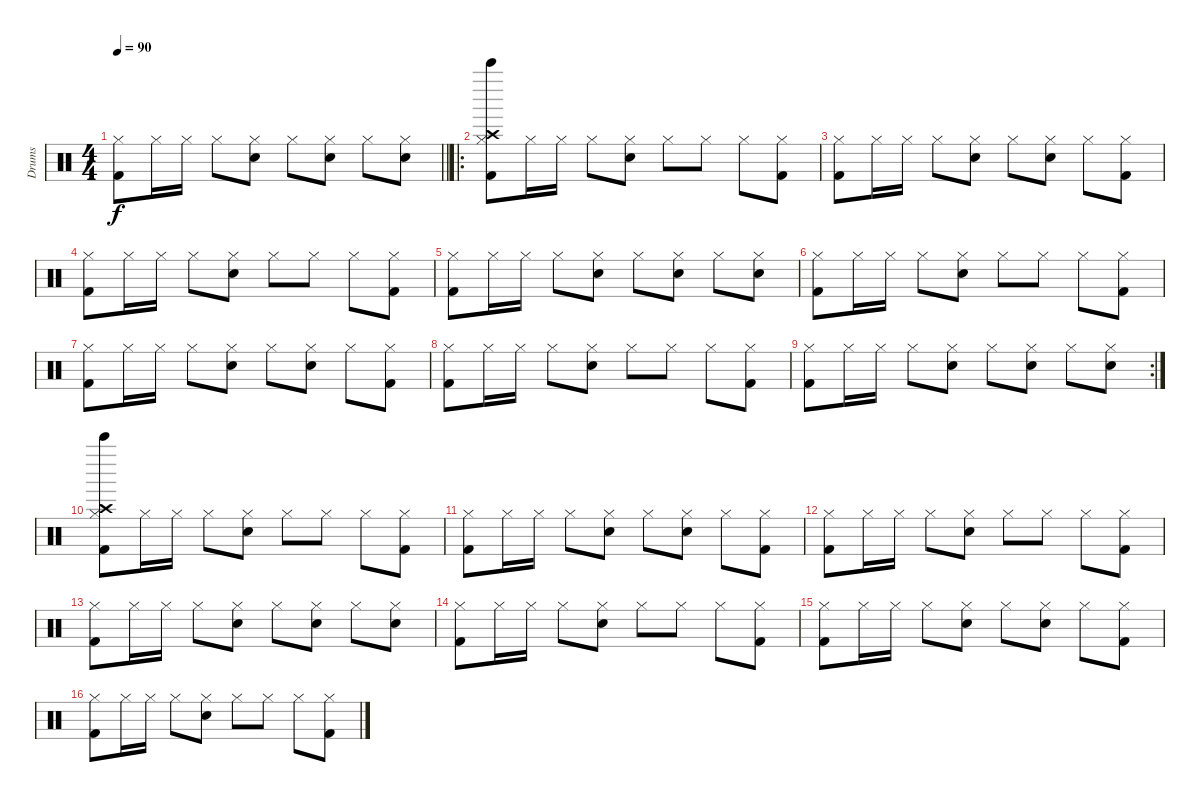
\track ("Drums" "Drums") {instrument percussion}
\staff {score}
\articulation defaults
\ts (4 4)
\tempo 90
\clef neutral
\barLineRight lightlight
\ks c
("Hi-Hat (closed)" "Kick (hit) 2").8{dy f} "Hi-Hat (closed)".16 "Hi-Hat (closed)".16 "Hi-Hat (closed)".8 ("Hi-Hat (closed)" "Snare (hit) 2").8 "Hi-Hat (closed)".8 ("Hi-Hat (closed)" "Snare (hit) 2").8 "Hi-Hat (closed)".8 ("Hi-Hat (closed)" "Snare (hit) 2").8 |
\ro
("Hi-Hat (closed)" "Kick (hit) 2" "Crash high (hit)" "Bell Tree (hit)").8 "Hi-Hat (closed)".16 "Hi-Hat (closed)".16 "Hi-Hat (closed)".8 ("Hi-Hat (closed)" "Snare (hit) 2").8 "Hi-Hat (closed)".8 "Hi-Hat (closed)".8 "Hi-Hat (closed)".8 ("Hi-Hat (closed)" "Kick (hit) 2").8 |
("Hi-Hat (closed)" "Kick (hit) 2").8 "Hi-Hat (closed)".16 "Hi-Hat (closed)".16 "Hi-Hat (closed)".8 ("Hi-Hat (closed)" "Snare (hit) 2").8 "Hi-Hat (closed)".8 ("Hi-Hat (closed)" "Snare (hit) 2").8 "Hi-Hat (closed)".8 ("Hi-Hat (closed)" "Kick (hit) 2").8 |
("Hi-Hat (closed)" "Kick (hit) 2").8 "Hi-Hat (closed)".16 "Hi-Hat (closed)".16 "Hi-Hat (closed)".8 ("Hi-Hat (closed)" "Snare (hit) 2").8 "Hi-Hat (closed)".8 "Hi-Hat (closed)".8 "Hi-Hat (closed)".8 ("Hi-Hat (closed)" "Kick (hit) 2").8 |
("Hi-Hat (closed)" "Kick (hit) 2").8 "Hi-Hat (closed)".16 "Hi-Hat (closed)".16 "Hi-Hat (closed)".8 ("Hi-Hat (closed)" "Snare (hit) 2").8 "Hi-Hat (closed)".8 ("Hi-Hat (closed)" "Snare (hit) 2").8 "Hi-Hat (closed)".8 ("Hi-Hat (closed)" "Snare (hit) 2").8 |
("Hi-Hat (closed)" "Kick (hit) 2").8 "Hi-Hat (closed)".16 "Hi-Hat (closed)".16 "Hi-Hat (closed)".8 ("Hi-Hat (closed)" "Snare (hit) 2").8 "Hi-Hat (closed)".8 "Hi-Hat (closed)".8 "Hi-Hat (closed)".8 ("Hi-Hat (closed)" "Kick (hit) 2").8 |
("Hi-Hat (closed)" "Kick (hit) 2").8 "Hi-Hat (closed)".16 "Hi-Hat (closed)".16 "Hi-Hat (closed)".8 ("Hi-Hat (closed)" "Snare (hit) 2").8 "Hi-Hat (closed)".8 ("Hi-Hat (closed)" "Snare (hit) 2").8 "Hi-Hat (closed)".8 ("Hi-Hat (closed)" "Kick (hit) 2").8 |
("Hi-Hat (closed)" "Kick (hit) 2").8 "Hi-Hat (closed)".16 "Hi-Hat (closed)".16 "Hi-Hat (closed)".8 ("Hi-Hat (closed)" "Snare (hit) 2").8 "Hi-Hat (closed)".8 "Hi-Hat (closed)".8 "Hi-Hat (closed)".8 ("Hi-Hat (closed)" "Kick (hit) 2").8 |
\rc 2
("Hi-Hat (closed)" "Kick (hit) 2").8 "Hi-Hat (closed)".16 "Hi-Hat (closed)".16 "Hi-Hat (closed)".8 ("Hi-Hat (closed)" "Snare (hit) 2").8 "Hi-Hat (closed)".8 ("Hi-Hat (closed)" "Snare (hit) 2").8 "Hi-Hat (closed)".8 ("Hi-Hat (closed)" "Snare (hit) 2").8 |
("Hi-Hat (closed)" "Crash high (hit)" "Kick (hit) 2" "Bell Tree (hit)").8 "Hi-Hat (closed)".16 "Hi-Hat (closed)".16 "Hi-Hat (closed)".8 ("Hi-Hat (closed)" "Snare (hit) 2").8 "Hi-Hat (closed)".8 "Hi-Hat (closed)".8 "Hi-Hat (closed)".8 ("Hi-Hat (closed)" "Kick (hit) 2").8 |
("Hi-Hat (closed)" "Kick (hit) 2").8 "Hi-Hat (closed)".16 "Hi-Hat (closed)".16 "Hi-Hat (closed)".8 ("Hi-Hat (closed)" "Snare (hit) 2").8 "Hi-Hat (closed)".8 ("Hi-Hat (closed)" "Snare (hit) 2").8 "Hi-Hat (closed)".8 ("Hi-Hat (closed)" "Kick (hit) 2").8 |
("Hi-Hat (closed)" "Kick (hit) 2").8 "Hi-Hat (closed)".16 "Hi-Hat (closed)".16 "Hi-Hat (closed)".8 ("Hi-Hat (closed)" "Snare (hit) 2").8 "Hi-Hat (closed)".8 "Hi-Hat (closed)".8 "Hi-Hat (closed)".8 ("Hi-Hat (closed)" "Kick (hit) 2").8 |
("Hi-Hat (closed)" "Kick (hit) 2").8 "Hi-Hat (closed)".16 "Hi-Hat (closed)".16 "Hi-Hat (closed)".8 ("Hi-Hat (closed)" "Snare (hit) 2").8 "Hi-Hat (closed)".8 ("Hi-Hat (closed)" "Snare (hit) 2").8 "Hi-Hat (closed)".8 ("Hi-Hat (closed)" "Snare (hit) 2").8 |
("Hi-Hat (closed)" "Kick (hit) 2").8 "Hi-Hat (closed)".16 "Hi-Hat (closed)".16 "Hi-Hat (closed)".8 ("Hi-Hat (closed)" "Snare (hit) 2").8 "Hi-Hat (closed)".8 "Hi-Hat (closed)".8 "Hi-Hat (closed)".8 ("Hi-Hat (closed)" "Kick (hit) 2").8 |
("Hi-Hat (closed)" "Kick (hit) 2").8 "Hi-Hat (closed)".16 "Hi-Hat (closed)".16 "Hi-Hat (closed)".8 ("Hi-Hat (closed)" "Snare (hit) 2").8 "Hi-Hat (closed)".8 ("Hi-Hat (closed)" "Snare (hit) 2").8 "Hi-Hat (closed)".8 ("Hi-Hat (closed)" "Kick (hit) 2").8 |
("Hi-Hat (closed)" "Kick (hit) 2").8 "Hi-Hat (closed)".16 "Hi-Hat (closed)".16 "Hi-Hat (closed)".8 ("Hi-Hat (closed)" "Snare (hit) 2").8 "Hi-Hat (closed)".8 "Hi-Hat (closed)".8 "Hi-Hat (closed)".8 ("Hi-Hat (closed)" "Kick (hit) 2").8
